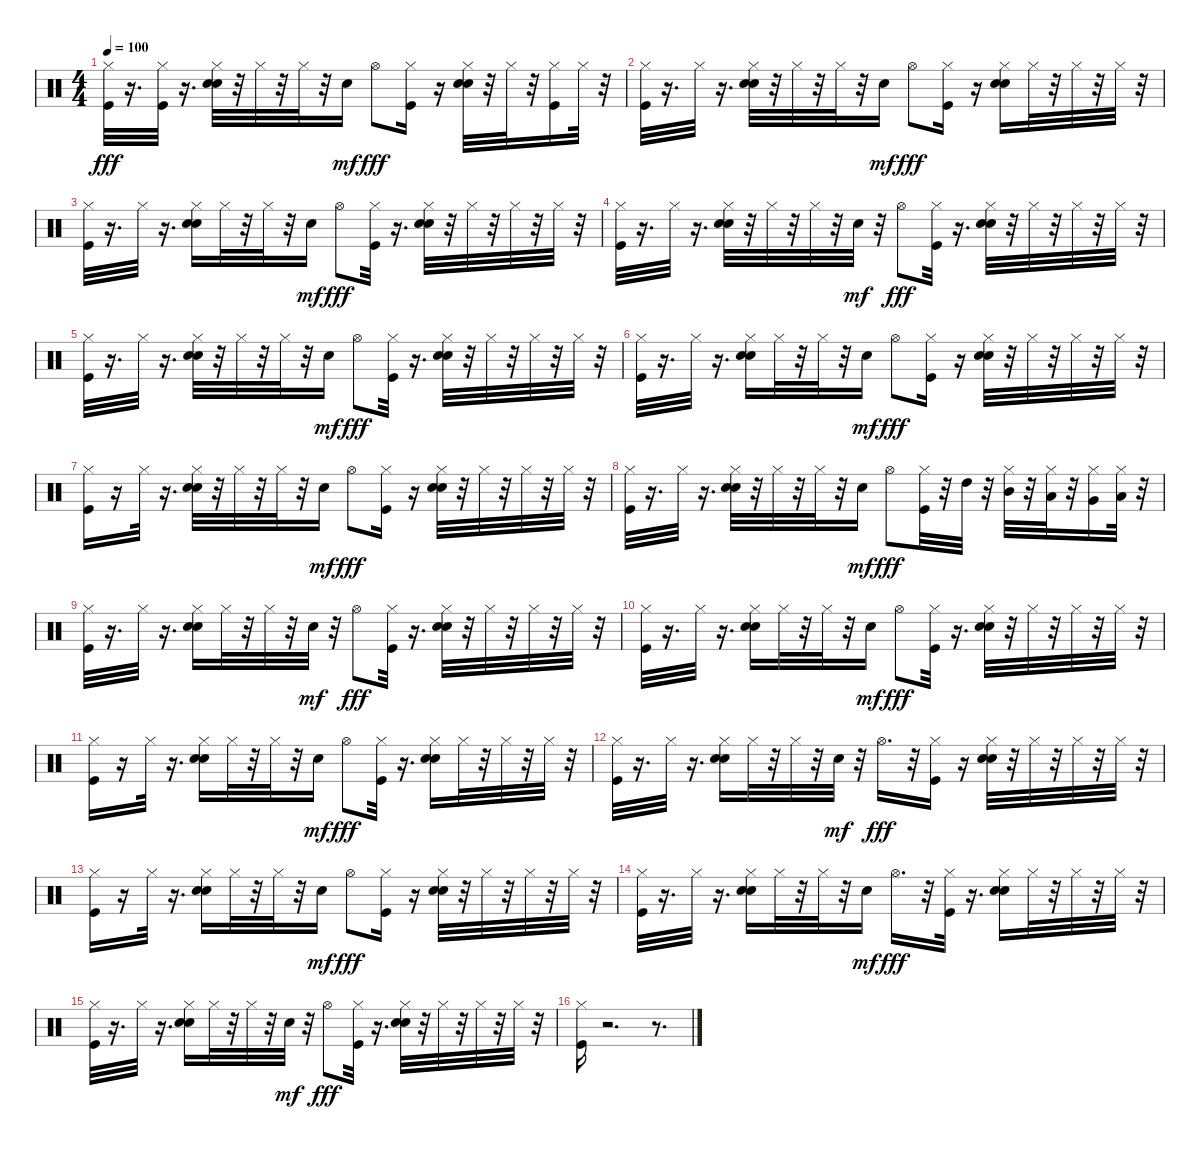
\track "" {instrument percussion}
\staff {score}
\articulation defaults
\ts (4 4)
\tempo 100
\clef neutral
\ks c
("Hi-Hat (closed)" "Kick (hit)").32{dy fff} r.16{d} ("Hi-Hat (closed)" "Kick (hit)").32 r.16{d} ("Hi-Hat (closed)" "Hand Clap (hit)" "Snare (hit) 2").32 r.32 "Hi-Hat (closed)".32 r.32 "Hi-Hat (closed)".32 r.32 "Electric Snare (hit)".16{dy mf} "Hi-Hat (open)".8{dy fff} ("Hi-Hat (closed)" "Kick (hit)").16 r.16 ("Hi-Hat (closed)" "Hand Clap (hit)" "Snare (hit) 2").32 r.32 "Hi-Hat (closed)".32 r.32 ("Hi-Hat (closed)" "Kick (hit)").16 "Hi-Hat (closed)".32 r.32 |
("Hi-Hat (closed)" "Kick (hit)").32 r.16{d} "Hi-Hat (closed)".32 r.16{d} ("Hi-Hat (closed)" "Hand Clap (hit)" "Snare (hit) 2").32 r.32 "Hi-Hat (closed)".32 r.32 "Hi-Hat (closed)".32 r.32 "Electric Snare (hit)".16{dy mf} "Hi-Hat (open)".8{dy fff} ("Hi-Hat (closed)" "Kick (hit)").16 r.16 ("Hi-Hat (closed)" "Hand Clap (hit)" "Snare (hit) 2").16 "Hi-Hat (closed)".32 r.32 "Hi-Hat (closed)".32 r.32 "Hi-Hat (closed)".32 r.32 |
("Hi-Hat (closed)" "Kick (hit)").32 r.16{d} "Hi-Hat (closed)".32 r.16{d} ("Hi-Hat (closed)" "Hand Clap (hit)" "Snare (hit) 2").16 "Hi-Hat (closed)".32 r.32 "Hi-Hat (closed)".32 r.32 "Electric Snare (hit)".16{dy mf} "Hi-Hat (open)".8{dy fff} ("Hi-Hat (closed)" "Kick (hit)").32 r.16{d} ("Hi-Hat (closed)" "Hand Clap (hit)" "Snare (hit) 2").32 r.32 "Hi-Hat (closed)".32 r.32 "Hi-Hat (closed)".32 r.32 "Hi-Hat (closed)".32 r.32 |
("Hi-Hat (closed)" "Kick (hit)").32 r.16{d} "Hi-Hat (closed)".32 r.16{d} ("Hi-Hat (closed)" "Hand Clap (hit)" "Snare (hit) 2").32 r.32 "Hi-Hat (closed)".32 r.32 "Hi-Hat (closed)".32 r.32 "Electric Snare (hit)".32{dy mf} r.32 "Hi-Hat (open)".8{dy fff} ("Hi-Hat (closed)" "Kick (hit)").32 r.16{d} ("Hi-Hat (closed)" "Hand Clap (hit)" "Snare (hit) 2").32 r.32 "Hi-Hat (closed)".32 r.32 "Hi-Hat (closed)".32 r.32 "Hi-Hat (closed)".32 r.32 |
("Hi-Hat (closed)" "Kick (hit)").32 r.16{d} "Hi-Hat (closed)".32 r.16{d} ("Hi-Hat (closed)" "Hand Clap (hit)" "Snare (hit) 2").32 r.32 "Hi-Hat (closed)".32 r.32 "Hi-Hat (closed)".32 r.32 "Electric Snare (hit)".16{dy mf} "Hi-Hat (open)".8{dy fff} ("Hi-Hat (closed)" "Kick (hit)").32 r.16{d} ("Hi-Hat (closed)" "Hand Clap (hit)" "Snare (hit) 2").32 r.32 "Hi-Hat (closed)".32 r.32 "Hi-Hat (closed)".32 r.32 "Hi-Hat (closed)".32 r.32 |
("Hi-Hat (closed)" "Kick (hit)").32 r.16{d} "Hi-Hat (closed)".32 r.16{d} ("Hi-Hat (closed)" "Hand Clap (hit)" "Snare (hit) 2").16 "Hi-Hat (closed)".32 r.32 "Hi-Hat (closed)".32 r.32 "Electric Snare (hit)".16{dy mf} "Hi-Hat (open)".8{dy fff} ("Hi-Hat (closed)" "Kick (hit)").16 r.16 ("Hi-Hat (closed)" "Hand Clap (hit)" "Snare (hit) 2").32 r.32 "Hi-Hat (closed)".32 r.32 "Hi-Hat (closed)".32 r.32 "Hi-Hat (closed)".32 r.32 |
("Hi-Hat (closed)" "Kick (hit)").16 r.16 "Hi-Hat (closed)".32 r.16{d} ("Hi-Hat (closed)" "Hand Clap (hit)" "Snare (hit) 2").32 r.32 "Hi-Hat (closed)".32 r.32 "Hi-Hat (closed)".32 r.32 "Electric Snare (hit)".16{dy mf} "Hi-Hat (open)".8{dy fff} ("Hi-Hat (closed)" "Kick (hit)").16 r.16 ("Hi-Hat (closed)" "Hand Clap (hit)" "Snare (hit) 2").32 r.32 "Hi-Hat (closed)".32 r.32 "Hi-Hat (closed)".32 r.32 "Hi-Hat (closed)".32 r.32 |
("Hi-Hat (closed)" "Kick (hit)").32 r.16{d} "Hi-Hat (closed)".32 r.16{d} ("Hi-Hat (closed)" "Hand Clap (hit)" "Snare (hit) 2").32 r.32 "Hi-Hat (closed)".32 r.32 "Hi-Hat (closed)".32 r.32 "Electric Snare (hit)".16{dy mf} "Hi-Hat (open)".8{dy fff} ("Hi-Hat (closed)" "Kick (hit)").32 r.32 "High Tom (hit)".32 r.32 ("Hi-Hat (closed)" "Mid Tom (hit)").32 r.32 ("Hi-Hat (closed)" "Low Tom (hit)").32 r.32 ("Hi-Hat (closed)" "Very Low Tom (hit)").16 ("Hi-Hat (closed)" "Low Floor Tom (hit)").32 r.32 |
("Hi-Hat (closed)" "Kick (hit)").32 r.16{d} "Hi-Hat (closed)".32 r.16{d} ("Hi-Hat (closed)" "Snare (hit) 2" "Hand Clap (hit)").16 "Hi-Hat (closed)".32 r.32 "Hi-Hat (closed)".32 r.32 "Electric Snare (hit)".32{dy mf} r.32 "Hi-Hat (open)".8{dy fff} ("Hi-Hat (closed)" "Kick (hit)").32 r.16{d} ("Hi-Hat (closed)" "Hand Clap (hit)" "Snare (hit) 2").32 r.32 "Hi-Hat (closed)".32 r.32 "Hi-Hat (closed)".32 r.32 "Hi-Hat (closed)".32 r.32 |
("Hi-Hat (closed)" "Kick (hit)").32 r.16{d} "Hi-Hat (closed)".32 r.16{d} ("Hi-Hat (closed)" "Snare (hit) 2" "Hand Clap (hit)").16 "Hi-Hat (closed)".32 r.32 "Hi-Hat (closed)".32 r.32 "Electric Snare (hit)".16{dy mf} "Hi-Hat (open)".8{dy fff} ("Hi-Hat (closed)" "Kick (hit)").32 r.16{d} ("Hi-Hat (closed)" "Hand Clap (hit)" "Snare (hit) 2").32 r.32 "Hi-Hat (closed)".32 r.32 "Hi-Hat (closed)".32 r.32 "Hi-Hat (closed)".32 r.32 |
("Hi-Hat (closed)" "Kick (hit)").16 r.16 "Hi-Hat (closed)".32 r.16{d} ("Hi-Hat (closed)" "Hand Clap (hit)" "Snare (hit) 2").16 "Hi-Hat (closed)".32 r.32 "Hi-Hat (closed)".32 r.32 "Electric Snare (hit)".16{dy mf} "Hi-Hat (open)".8{dy fff} ("Hi-Hat (closed)" "Kick (hit)").32 r.16{d} ("Hi-Hat (closed)" "Hand Clap (hit)" "Snare (hit) 2").16 "Hi-Hat (closed)".32 r.32 "Hi-Hat (closed)".32 r.32 "Hi-Hat (closed)".32 r.32 |
("Hi-Hat (closed)" "Kick (hit)").32 r.16{d} "Hi-Hat (closed)".32 r.16{d} ("Hi-Hat (closed)" "Hand Clap (hit)" "Snare (hit) 2").16 "Hi-Hat (closed)".32 r.32 "Hi-Hat (closed)".32 r.32 "Electric Snare (hit)".32{dy mf} r.32 "Hi-Hat (open)".16{d dy fff} r.32 ("Hi-Hat (closed)" "Kick (hit)").16 r.16 ("Hi-Hat (closed)" "Hand Clap (hit)" "Snare (hit) 2").32 r.32 "Hi-Hat (closed)".32 r.32 "Hi-Hat (closed)".32 r.32 "Hi-Hat (closed)".32 r.32 |
("Hi-Hat (closed)" "Kick (hit)").16 r.16 "Hi-Hat (closed)".32 r.16{d} ("Hi-Hat (closed)" "Hand Clap (hit)" "Snare (hit) 2").16 "Hi-Hat (closed)".32 r.32 "Hi-Hat (closed)".32 r.32 "Electric Snare (hit)".16{dy mf} "Hi-Hat (open)".8{dy fff} ("Hi-Hat (closed)" "Kick (hit)").16 r.16 ("Hi-Hat (closed)" "Hand Clap (hit)" "Snare (hit) 2").32 r.32 "Hi-Hat (closed)".32 r.32 "Hi-Hat (closed)".32 r.32 "Hi-Hat (closed)".32 r.32 |
("Hi-Hat (closed)" "Kick (hit)").32 r.16{d} "Hi-Hat (closed)".32 r.16{d} ("Hi-Hat (closed)" "Hand Clap (hit)" "Snare (hit) 2").16 "Hi-Hat (closed)".32 r.32 "Hi-Hat (closed)".32 r.32 "Electric Snare (hit)".16{dy mf} "Hi-Hat (open)".16{d dy fff} r.32 ("Hi-Hat (closed)" "Kick (hit)").32 r.16{d} ("Hi-Hat (closed)" "Hand Clap (hit)" "Snare (hit) 2").16 "Hi-Hat (closed)".32 r.32 "Hi-Hat (closed)".32 r.32 "Hi-Hat (closed)".32 r.32 |
("Hi-Hat (closed)" "Kick (hit)").32 r.16{d} "Hi-Hat (closed)".32 r.16{d} ("Hi-Hat (closed)" "Hand Clap (hit)" "Snare (hit) 2").16 "Hi-Hat (closed)".32 r.32 "Hi-Hat (closed)".32 r.32 "Electric Snare (hit)".32{dy mf} r.32 "Hi-Hat (open)".8{dy fff} ("Hi-Hat (closed)" "Kick (hit)").32 r.16{d} ("Hi-Hat (closed)" "Hand Clap (hit)" "Snare (hit) 2").32 r.32 "Hi-Hat (closed)".32 r.32 "Hi-Hat (closed)".32 r.32 "Hi-Hat (closed)".32 r.32 |
("Hi-Hat (closed)" "Kick (hit)").16 r.2{d} r.8{d}
